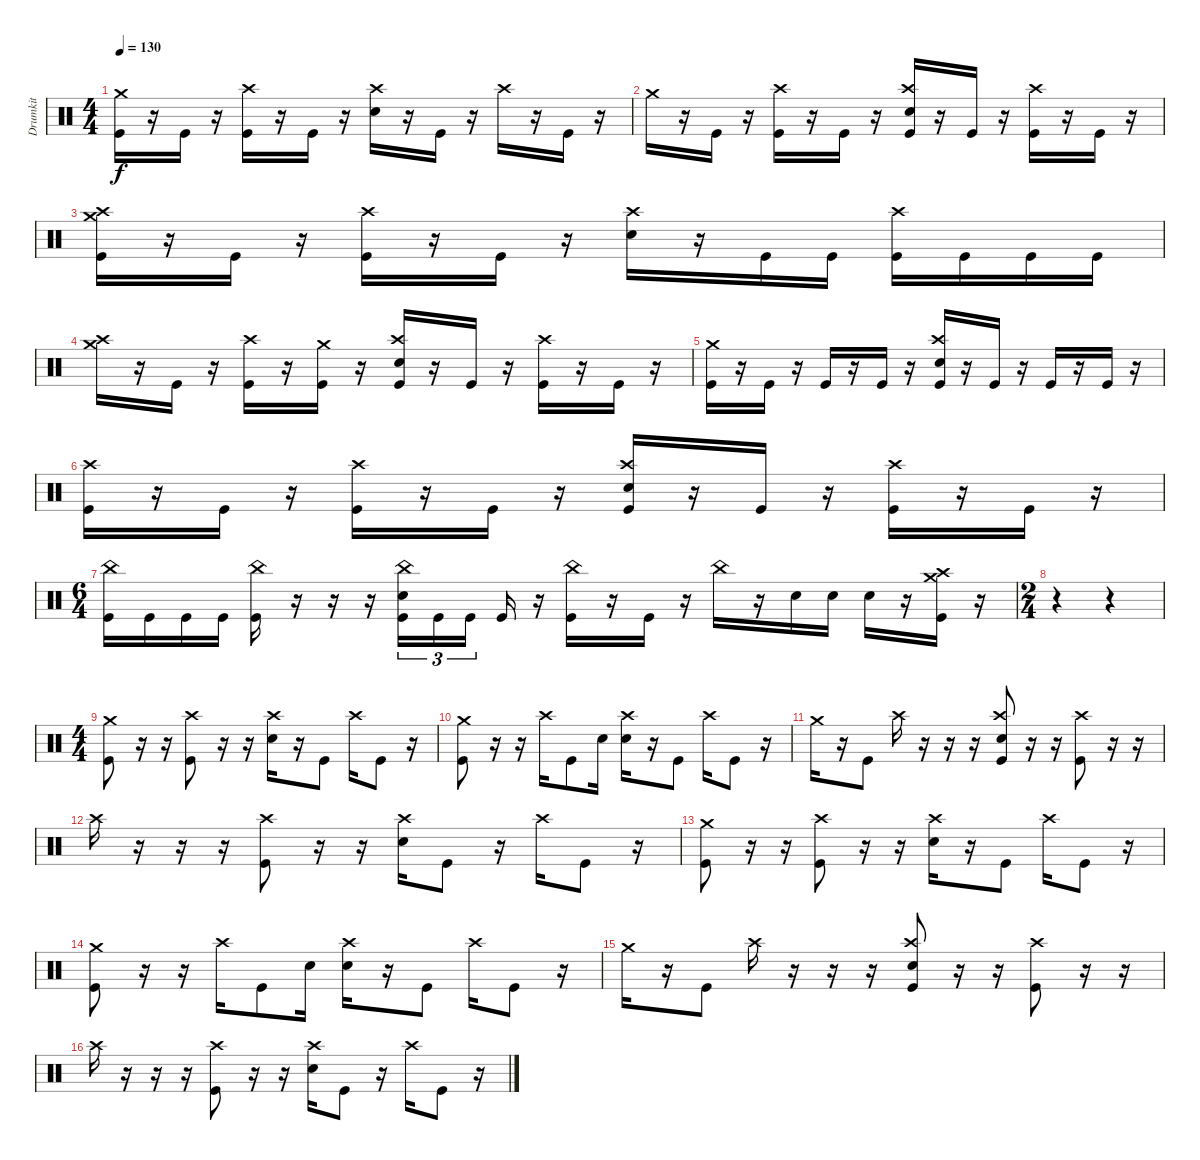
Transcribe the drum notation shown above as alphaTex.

\track ("Drumkit" "Drumkit") {instrument percussion}
\staff {score}
\articulation defaults
\ts (4 4)
\tempo 130
\clef neutral
\ks c
("Crash medium (hit)" "Kick (hit)").16{dy f} r.16 "Kick (hit)".16 r.16 ("Crash high (hit)" "Kick (hit)").16 r.16 "Kick (hit)".16 r.16 ("Crash high (hit)" "Snare (hit) 2").16 r.16 "Kick (hit)".16 r.16 "Crash high (hit)".16 r.16 "Kick (hit)".16 r.16 |
"Crash medium (hit)".16 r.16 "Kick (hit)".16 r.16 ("Crash high (hit)" "Kick (hit)").16 r.16 "Kick (hit)".16 r.16 ("Crash high (hit)" "Snare (hit) 2" "Kick (hit)").16 r.16 "Kick (hit)".16 r.16 ("Crash high (hit)" "Kick (hit)").16 r.16 "Kick (hit)".16 r.16 |
("Crash medium (hit)" "Crash high (hit)" "Kick (hit)").16 r.16 "Kick (hit)".16 r.16 ("Crash high (hit)" "Kick (hit)").16 r.16 "Kick (hit)".16 r.16 ("Crash high (hit)" "Snare (hit) 2").16 r.16 "Kick (hit)".16 "Kick (hit)".16 ("Crash high (hit)" "Kick (hit)").16 "Kick (hit)".16 "Kick (hit)".16 "Kick (hit)".16 |
("Crash medium (hit)" "Crash high (hit)").16 r.16 "Kick (hit)".16 r.16 ("Crash high (hit)" "Kick (hit)").16 r.16 ("Crash medium (hit)" "Kick (hit)").16 r.16 ("Crash high (hit)" "Snare (hit) 2" "Kick (hit)").16 r.16 "Kick (hit)".16 r.16 ("Crash high (hit)" "Kick (hit)").16 r.16 "Kick (hit)".16 r.16 |
("Crash medium (hit)" "Kick (hit)").16 r.16 "Kick (hit)".16 r.16 "Kick (hit)".16 r.16 "Kick (hit)".16 r.16 ("Crash high (hit)" "Snare (hit) 2" "Kick (hit)").16 r.16 "Kick (hit)".16 r.16 "Kick (hit)".16 r.16 "Kick (hit)".16 r.16 |
("Crash high (hit)" "Kick (hit)").16 r.16 "Kick (hit)".16 r.16 ("Crash high (hit)" "Kick (hit)").16 r.16 "Kick (hit)".16 r.16 ("Crash high (hit)" "Snare (hit) 2" "Kick (hit)").16 r.16 "Kick (hit)".16 r.16 ("Crash high (hit)" "Kick (hit)").16 r.16 "Kick (hit)".16 r.16 |
\ts (6 4)
("China (hit)" "Kick (hit)").16 "Kick (hit)".16 "Kick (hit)".16 "Kick (hit)".16 ("China (hit)" "Kick (hit)").16 r.16 r.16 r.16 ("China (hit)" "Snare (hit) 2" "Kick (hit)").16{tu (3 2)} "Kick (hit)".16{tu (3 2)} "Kick (hit)".16{tu (3 2)} "Kick (hit)".16 r.16 ("China (hit)" "Kick (hit)").16 r.16 "Kick (hit)".16 r.16 "China (hit)".16 r.16 "Snare (hit) 2".16 "Snare (hit) 2".16 "Snare (hit) 2".16 r.16 ("Crash medium (hit)" "Crash high (hit)" "Kick (hit)").16 r.16 |
\ts (2 4)
r.4 r.4 |
\ts (4 4)
("Crash medium (hit)" "Kick (hit)").8 r.16 r.16 ("Crash high (hit)" "Kick (hit)").8 r.16 r.16 ("Crash high (hit)" "Snare (hit) 2").16 r.16 "Kick (hit)".8 "Crash high (hit)".16 "Kick (hit)".8 r.16 |
("Crash medium (hit)" "Kick (hit)").8 r.16 r.16 "Crash high (hit)".16 "Kick (hit)".8 "Snare (hit) 2".16 ("Crash high (hit)" "Snare (hit) 2").16 r.16 "Kick (hit)".8 "Crash high (hit)".16 "Kick (hit)".8 r.16 |
"Crash medium (hit)".16 r.16 "Kick (hit)".8 "Crash high (hit)".16 r.16 r.16 r.16 ("Crash high (hit)" "Snare (hit) 2" "Kick (hit)").8 r.16 r.16 ("Crash high (hit)" "Kick (hit)").8 r.16 r.16 |
"Crash high (hit)".16 r.16 r.16 r.16 ("Crash high (hit)" "Kick (hit)").8 r.16 r.16 ("Crash high (hit)" "Snare (hit) 2").16 "Kick (hit)".8 r.16 "Crash high (hit)".16 "Kick (hit)".8 r.16 |
("Crash medium (hit)" "Kick (hit)").8 r.16 r.16 ("Crash high (hit)" "Kick (hit)").8 r.16 r.16 ("Crash high (hit)" "Snare (hit) 2").16 r.16 "Kick (hit)".8 "Crash high (hit)".16 "Kick (hit)".8 r.16 |
("Crash medium (hit)" "Kick (hit)").8 r.16 r.16 "Crash high (hit)".16 "Kick (hit)".8 "Snare (hit) 2".16 ("Crash high (hit)" "Snare (hit) 2").16 r.16 "Kick (hit)".8 "Crash high (hit)".16 "Kick (hit)".8 r.16 |
"Crash medium (hit)".16 r.16 "Kick (hit)".8 "Crash high (hit)".16 r.16 r.16 r.16 ("Crash high (hit)" "Snare (hit) 2" "Kick (hit)").8 r.16 r.16 ("Crash high (hit)" "Kick (hit)").8 r.16 r.16 |
"Crash high (hit)".16 r.16 r.16 r.16 ("Crash high (hit)" "Kick (hit)").8 r.16 r.16 ("Crash high (hit)" "Snare (hit) 2").16 "Kick (hit)".8 r.16 "Crash high (hit)".16 "Kick (hit)".8 r.16
